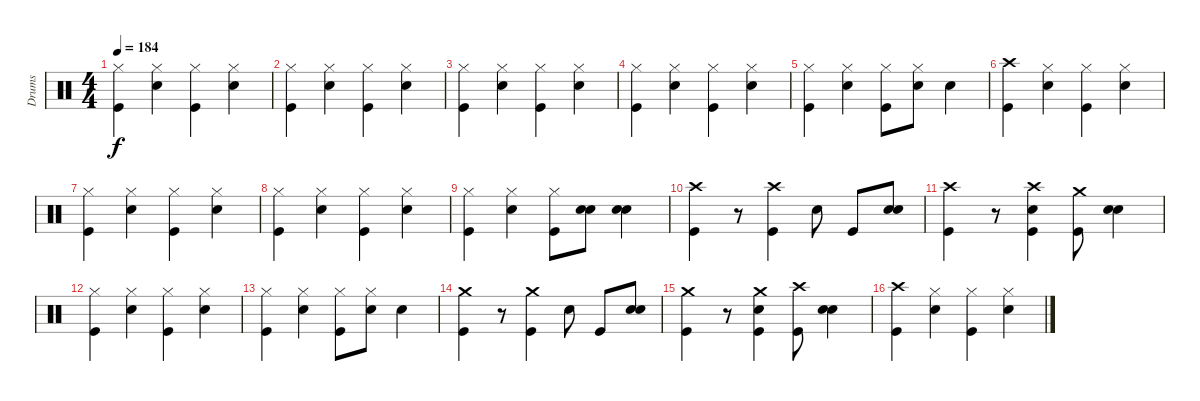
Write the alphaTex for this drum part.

\track ("Drums" "Drums") {instrument percussion}
\staff {score}
\articulation defaults
\ts (4 4)
\tempo 184
\clef neutral
\ks c
("Hi-Hat (closed)" "Kick (hit)").4{dy f} ("Hi-Hat (closed)" "Electric Snare (hit)").4 ("Hi-Hat (closed)" "Kick (hit)").4 ("Hi-Hat (closed)" "Electric Snare (hit)").4 |
("Hi-Hat (closed)" "Kick (hit)").4 ("Hi-Hat (closed)" "Electric Snare (hit)").4 ("Hi-Hat (closed)" "Kick (hit)").4 ("Hi-Hat (closed)" "Electric Snare (hit)").4 |
("Hi-Hat (closed)" "Kick (hit)").4 ("Hi-Hat (closed)" "Electric Snare (hit)").4 ("Hi-Hat (closed)" "Kick (hit)").4 ("Hi-Hat (closed)" "Electric Snare (hit)").4 |
("Hi-Hat (closed)" "Kick (hit)").4 ("Hi-Hat (closed)" "Electric Snare (hit)").4 ("Hi-Hat (closed)" "Kick (hit)").4 ("Hi-Hat (closed)" "Electric Snare (hit)").4 |
("Hi-Hat (closed)" "Kick (hit)").4 ("Hi-Hat (closed)" "Electric Snare (hit)").4 ("Hi-Hat (closed)" "Kick (hit)").8 ("Hi-Hat (closed)" "Electric Snare (hit)").8 "Electric Snare (hit)".4 |
("Crash high (hit)" "Kick (hit)").4 ("Hi-Hat (closed)" "Electric Snare (hit)").4 ("Hi-Hat (closed)" "Kick (hit)").4 ("Hi-Hat (closed)" "Electric Snare (hit)").4 |
("Hi-Hat (closed)" "Kick (hit)").4 ("Hi-Hat (closed)" "Electric Snare (hit)").4 ("Hi-Hat (closed)" "Kick (hit)").4 ("Hi-Hat (closed)" "Electric Snare (hit)").4 |
("Hi-Hat (closed)" "Kick (hit)").4 ("Hi-Hat (closed)" "Electric Snare (hit)").4 ("Hi-Hat (closed)" "Kick (hit)").4 ("Hi-Hat (closed)" "Electric Snare (hit)").4 |
("Hi-Hat (closed)" "Kick (hit)").4 ("Hi-Hat (closed)" "Electric Snare (hit)").4 ("Hi-Hat (closed)" "Kick (hit)").8 ("Electric Snare (hit)" "Electric Snare (hit)").8 ("Electric Snare (hit)" "Electric Snare (hit)").4 |
("Crash high (hit)" "Kick (hit)").4 r.8 ("Crash high (hit)" "Kick (hit)").4 "Electric Snare (hit)".8 "Kick (hit)".8 ("Electric Snare (hit)" "Electric Snare (hit)").8 |
("Crash high (hit)" "Kick (hit)").4 r.8 ("Crash high (hit)" "Electric Snare (hit)" "Kick (hit)").4 ("Crash medium (hit)" "Kick (hit)").8 ("Electric Snare (hit)" "Electric Snare (hit)").4 |
("Hi-Hat (closed)" "Kick (hit)").4 ("Hi-Hat (closed)" "Electric Snare (hit)").4 ("Hi-Hat (closed)" "Kick (hit)").4 ("Hi-Hat (closed)" "Electric Snare (hit)").4 |
("Hi-Hat (closed)" "Kick (hit)").4 ("Hi-Hat (closed)" "Electric Snare (hit)").4 ("Hi-Hat (closed)" "Kick (hit)").8 ("Hi-Hat (closed)" "Electric Snare (hit)").8 "Electric Snare (hit)".4 |
("Crash medium (hit)" "Kick (hit)").4 r.8 ("Crash medium (hit)" "Kick (hit)").4 "Electric Snare (hit)".8 "Kick (hit)".8 ("Electric Snare (hit)" "Electric Snare (hit)").8 |
("Crash medium (hit)" "Kick (hit)").4 r.8 ("Crash medium (hit)" "Electric Snare (hit)" "Kick (hit)").4 ("Crash high (hit)" "Kick (hit)").8 ("Electric Snare (hit)" "Electric Snare (hit)").4 |
("Crash high (hit)" "Kick (hit)").4 ("Hi-Hat (closed)" "Electric Snare (hit)").4 ("Hi-Hat (closed)" "Kick (hit)").4 ("Hi-Hat (closed)" "Electric Snare (hit)").4
